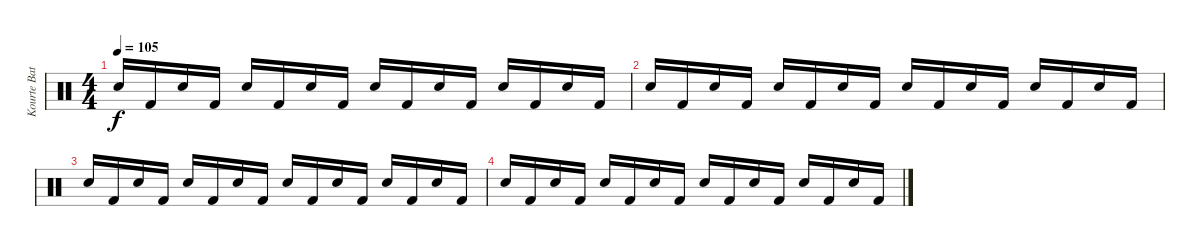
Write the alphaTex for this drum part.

\track ("Kourte Batt" "Kourte Bat") {instrument percussion}
\staff {score}
\articulation defaults
\ts (4 4)
\tempo 105
\clef neutral
\ks c "Electric Snare (hit)".16{dy f} "Kick (hit) 2".16 "Electric Snare (hit)".16 "Kick (hit) 2".16 "Electric Snare (hit)".16 "Kick (hit) 2".16 "Electric Snare (hit)".16 "Kick (hit) 2".16 "Electric Snare (hit)".16 "Kick (hit) 2".16 "Electric Snare (hit)".16 "Kick (hit) 2".16 "Electric Snare (hit)".16 "Kick (hit) 2".16 "Electric Snare (hit)".16 "Kick (hit) 2".16
|
"Electric Snare (hit)".16 "Kick (hit) 2".16 "Electric Snare (hit)".16 "Kick (hit) 2".16 "Electric Snare (hit)".16 "Kick (hit) 2".16 "Electric Snare (hit)".16 "Kick (hit) 2".16 "Electric Snare (hit)".16 "Kick (hit) 2".16 "Electric Snare (hit)".16 "Kick (hit) 2".16 "Electric Snare (hit)".16 "Kick (hit) 2".16 "Electric Snare (hit)".16 "Kick (hit) 2".16 |
"Electric Snare (hit)".16 "Kick (hit) 2".16 "Electric Snare (hit)".16 "Kick (hit) 2".16 "Electric Snare (hit)".16 "Kick (hit) 2".16 "Electric Snare (hit)".16 "Kick (hit) 2".16 "Electric Snare (hit)".16 "Kick (hit) 2".16 "Electric Snare (hit)".16 "Kick (hit) 2".16 "Electric Snare (hit)".16 "Kick (hit) 2".16 "Electric Snare (hit)".16 "Kick (hit) 2".16 |
"Electric Snare (hit)".16 "Kick (hit) 2".16 "Electric Snare (hit)".16 "Kick (hit) 2".16 "Electric Snare (hit)".16 "Kick (hit) 2".16 "Electric Snare (hit)".16 "Kick (hit) 2".16 "Electric Snare (hit)".16 "Kick (hit) 2".16 "Electric Snare (hit)".16 "Kick (hit) 2".16 "Electric Snare (hit)".16 "Kick (hit) 2".16 "Electric Snare (hit)".16 "Kick (hit) 2".16
